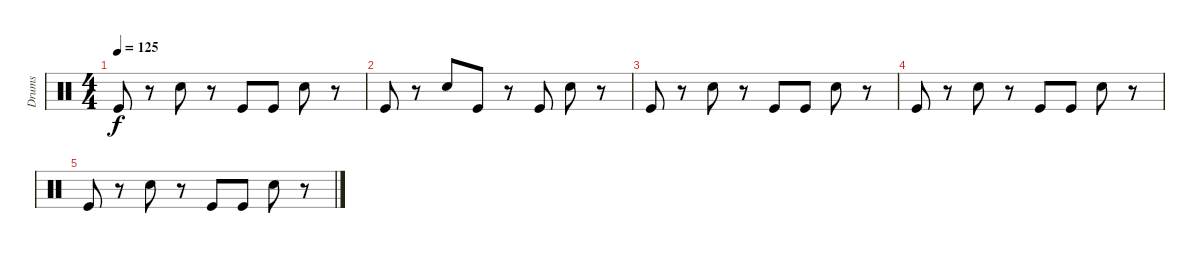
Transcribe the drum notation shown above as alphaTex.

\track ("Drums" "Drums") {instrument percussion}
\staff {score}
\articulation defaults
\ts (4 4)
\tempo 125
\clef neutral
\ks c "Kick (hit)".8{dy f}
r.8 "Snare (hit) 2".8 r.8 "Kick (hit)".8 "Kick (hit)".8 "Snare (hit) 2".8 r.8 |
"Kick (hit)".8 r.8 "Snare (hit) 2".8 "Kick (hit)".8 r.8 "Kick (hit)".8 "Snare (hit) 2".8 r.8 |
"Kick (hit)".8 r.8 "Snare (hit) 2".8 r.8 "Kick (hit)".8 "Kick (hit)".8 "Snare (hit) 2".8 r.8 |
"Kick (hit)".8 r.8 "Snare (hit) 2".8 r.8 "Kick (hit)".8 "Kick (hit)".8 "Snare (hit) 2".8 r.8 |
"Kick (hit)".8 r.8 "Snare (hit) 2".8 r.8 "Kick (hit)".8 "Kick (hit)".8 "Snare (hit) 2".8 r.8
